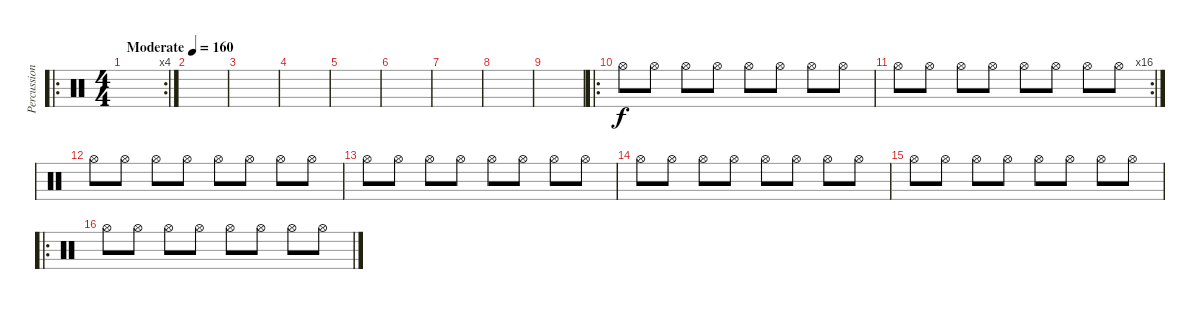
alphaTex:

\track ("Percussion" "Percussion") {instrument percussion}
\staff {score}
\articulation defaults
\ro
\rc 4
\ts (4 4)
\tempo (160 "Moderate")
\clef neutral
\ks c
|
|
|
|
|
|
|
|
|
\ro "Hi-Hat (open)".8 "Hi-Hat (open)".8 "Hi-Hat (open)".8 "Hi-Hat (open)".8 "Hi-Hat (open)".8 "Hi-Hat (open)".8 "Hi-Hat (open)".8 "Hi-Hat (open)".8
|
\rc 16 "Hi-Hat (open)".8 "Hi-Hat (open)".8 "Hi-Hat (open)".8 "Hi-Hat (open)".8 "Hi-Hat (open)".8 "Hi-Hat (open)".8 "Hi-Hat (open)".8 "Hi-Hat (open)".8
|
"Hi-Hat (open)".8 "Hi-Hat (open)".8 "Hi-Hat (open)".8 "Hi-Hat (open)".8 "Hi-Hat (open)".8 "Hi-Hat (open)".8 "Hi-Hat (open)".8 "Hi-Hat (open)".8 |
"Hi-Hat (open)".8 "Hi-Hat (open)".8 "Hi-Hat (open)".8 "Hi-Hat (open)".8 "Hi-Hat (open)".8 "Hi-Hat (open)".8 "Hi-Hat (open)".8 "Hi-Hat (open)".8 |
"Hi-Hat (open)".8 "Hi-Hat (open)".8 "Hi-Hat (open)".8 "Hi-Hat (open)".8 "Hi-Hat (open)".8 "Hi-Hat (open)".8 "Hi-Hat (open)".8 "Hi-Hat (open)".8 |
"Hi-Hat (open)".8 "Hi-Hat (open)".8 "Hi-Hat (open)".8 "Hi-Hat (open)".8 "Hi-Hat (open)".8 "Hi-Hat (open)".8 "Hi-Hat (open)".8 "Hi-Hat (open)".8 |
\ro "Hi-Hat (open)".8 "Hi-Hat (open)".8 "Hi-Hat (open)".8 "Hi-Hat (open)".8 "Hi-Hat (open)".8 "Hi-Hat (open)".8 "Hi-Hat (open)".8 "Hi-Hat (open)".8
